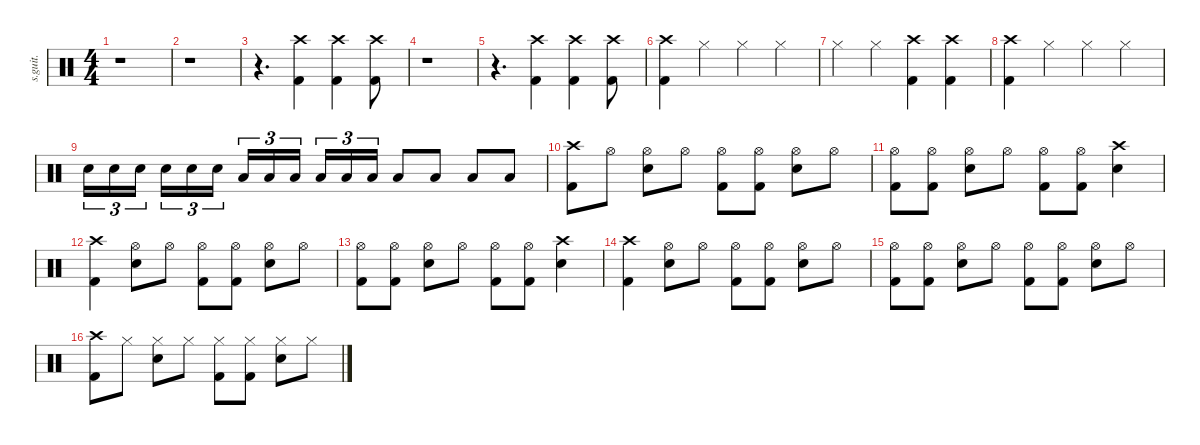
\defaultSystemsLayout 4
\hideDynamics
\bracketExtendMode nobrackets
\track ("" "s.guit.") {instrument percussion}
\staff {score}
\articulation defaults
\ts (4 4)
\beaming (8 2 2 2 2)
\tempo (128 hide)
\clef neutral
\ks c
r.1{dy f} |
r.1 |
r.4{d} ("Crash high (hit)" "Kick (hit) 2").4 ("Crash high (hit)" "Kick (hit) 2").4 ("Crash high (hit)" "Kick (hit) 2").8 |
r.1 |
r.4{d} ("Crash high (hit)" "Kick (hit) 2").4 ("Crash high (hit)" "Kick (hit) 2").4 ("Crash high (hit)" "Kick (hit) 2").8 |
("Crash high (hit)" "Kick (hit) 2").4 "Hi-Hat (closed)".4 "Hi-Hat (closed)".4 "Hi-Hat (closed)".4 |
"Hi-Hat (closed)".4 "Hi-Hat (closed)".4 ("Crash high (hit)" "Kick (hit) 2").4 ("Crash high (hit)" "Kick (hit) 2").4 |
("Crash high (hit)" "Kick (hit) 2").4 "Hi-Hat (closed)".4 "Hi-Hat (closed)".4 "Hi-Hat (closed)".4 |
"Snare (hit) 2".16{tu (3 2)} "Snare (hit) 2".16{tu (3 2)} "Snare (hit) 2".16{tu (3 2)} "Snare (hit) 2".16{tu (3 2)} "Snare (hit) 2".16{tu (3 2)} "Snare (hit) 2".16{tu (3 2)} "Low Tom (hit)".16{tu (3 2)} "Low Tom (hit)".16{tu (3 2)} "Low Tom (hit)".16{tu (3 2)} "Low Tom (hit)".16{tu (3 2)} "Low Tom (hit)".16{tu (3 2)} "Low Tom (hit)".16{tu (3 2)} "Low Tom (hit)".8 "Low Tom (hit)".8 "Low Tom (hit)".8 "Low Tom (hit)".8 |
("Crash high (hit)" "Kick (hit) 2").8 "Hi-Hat (open)".8 ("Hi-Hat (open)" "Snare (hit) 2").8 "Hi-Hat (open)".8 ("Hi-Hat (open)" "Kick (hit) 2").8 ("Hi-Hat (open)" "Kick (hit) 2").8 ("Hi-Hat (open)" "Snare (hit) 2").8 "Hi-Hat (open)".8 |
("Hi-Hat (open)" "Kick (hit) 2").8 ("Hi-Hat (open)" "Kick (hit) 2").8 ("Hi-Hat (open)" "Snare (hit) 2").8 "Hi-Hat (open)".8 ("Hi-Hat (open)" "Kick (hit) 2").8 ("Hi-Hat (open)" "Kick (hit) 2").8 ("Crash high (hit)" "Snare (hit) 2").4 |
("Crash high (hit)" "Kick (hit) 2").4 ("Hi-Hat (open)" "Snare (hit) 2").8 "Hi-Hat (open)".8 ("Hi-Hat (open)" "Kick (hit) 2").8 ("Hi-Hat (open)" "Kick (hit) 2").8 ("Hi-Hat (open)" "Snare (hit) 2").8 "Hi-Hat (open)".8 |
("Hi-Hat (open)" "Kick (hit) 2").8 ("Hi-Hat (open)" "Kick (hit) 2").8 ("Hi-Hat (open)" "Snare (hit) 2").8 "Hi-Hat (open)".8 ("Hi-Hat (open)" "Kick (hit) 2").8 ("Hi-Hat (open)" "Kick (hit) 2").8 ("Crash high (hit)" "Snare (hit) 2").4 |
("Crash high (hit)" "Kick (hit) 2").4 ("Hi-Hat (open)" "Snare (hit) 2").8 "Hi-Hat (open)".8 ("Hi-Hat (open)" "Kick (hit) 2").8 ("Hi-Hat (open)" "Kick (hit) 2").8 ("Hi-Hat (open)" "Snare (hit) 2").8 "Hi-Hat (open)".8 |
("Hi-Hat (open)" "Kick (hit) 2").8 ("Hi-Hat (open)" "Kick (hit) 2").8 ("Hi-Hat (open)" "Snare (hit) 2").8 "Hi-Hat (open)".8 ("Hi-Hat (open)" "Kick (hit) 2").8 ("Hi-Hat (open)" "Kick (hit) 2").8 ("Hi-Hat (open)" "Snare (hit) 2").8 "Hi-Hat (open)".8 |
("Crash high (hit)" "Kick (hit) 2").8 "Hi-Hat (closed)".8 ("Hi-Hat (closed)" "Snare (hit) 2").8 "Hi-Hat (closed)".8 ("Hi-Hat (closed)" "Kick (hit) 2").8 ("Hi-Hat (closed)" "Kick (hit) 2").8 ("Hi-Hat (closed)" "Snare (hit) 2").8 "Hi-Hat (closed)".8
